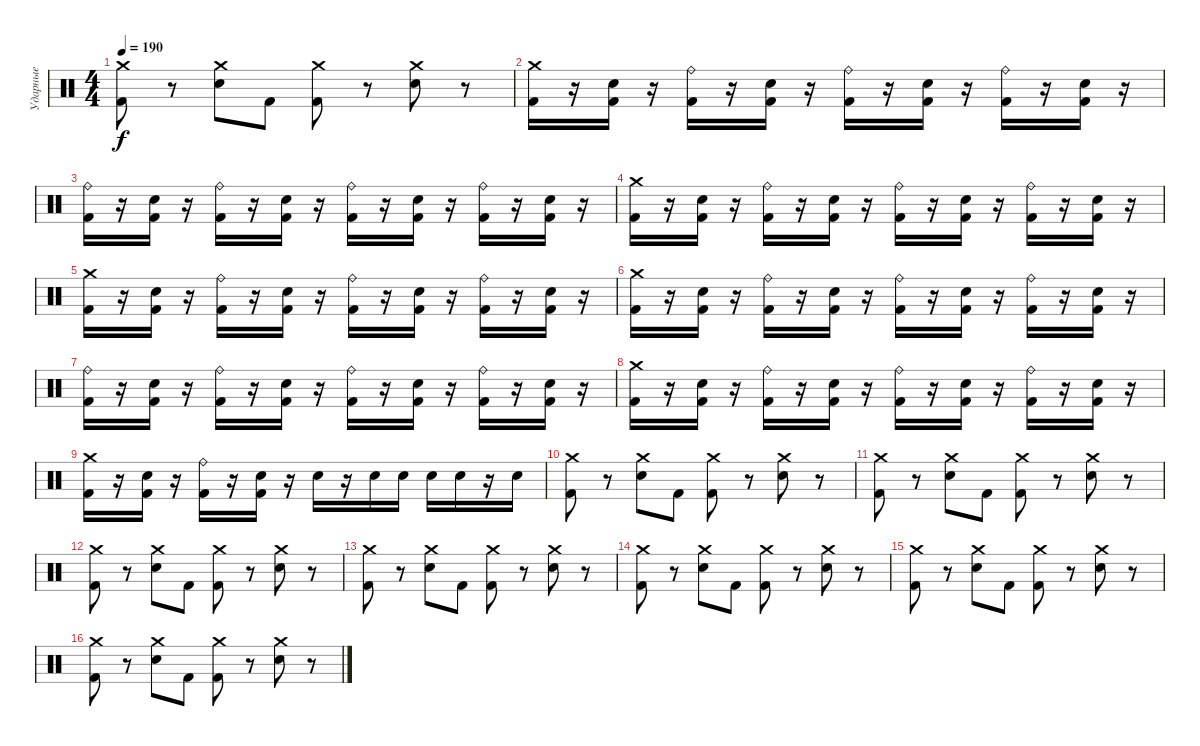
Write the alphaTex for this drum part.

\track ("Ударные" "Ударные") {instrument percussion}
\staff {score}
\articulation defaults
\ts (4 4)
\tempo 190
\clef neutral
\ks c
("Crash medium (hit)" "Kick (hit) 2").8{dy f} r.8 ("Crash medium (hit)" "Snare (hit) 2").8 "Kick (hit) 2".8 ("Crash medium (hit)" "Kick (hit) 2").8 r.8 ("Crash medium (hit)" "Snare (hit) 2").8 r.8 |
("Crash medium (hit)" "Kick (hit) 2").16 r.16 ("Snare (hit) 2" "Kick (hit) 2").16 r.16 ("Ride (bell)" "Kick (hit) 2").16 r.16 ("Snare (hit) 2" "Kick (hit) 2").16 r.16 ("Ride (bell)" "Kick (hit) 2").16 r.16 ("Snare (hit) 2" "Kick (hit) 2").16 r.16 ("Ride (bell)" "Kick (hit) 2").16 r.16 ("Snare (hit) 2" "Kick (hit) 2").16 r.16 |
("Ride (bell)" "Kick (hit) 2").16 r.16 ("Snare (hit) 2" "Kick (hit) 2").16 r.16 ("Ride (bell)" "Kick (hit) 2").16 r.16 ("Snare (hit) 2" "Kick (hit) 2").16 r.16 ("Ride (bell)" "Kick (hit) 2").16 r.16 ("Snare (hit) 2" "Kick (hit) 2").16 r.16 ("Ride (bell)" "Kick (hit) 2").16 r.16 ("Snare (hit) 2" "Kick (hit) 2").16 r.16 |
("Crash medium (hit)" "Kick (hit) 2").16 r.16 ("Snare (hit) 2" "Kick (hit) 2").16 r.16 ("Ride (bell)" "Kick (hit) 2").16 r.16 ("Snare (hit) 2" "Kick (hit) 2").16 r.16 ("Ride (bell)" "Kick (hit) 2").16 r.16 ("Snare (hit) 2" "Kick (hit) 2").16 r.16 ("Ride (bell)" "Kick (hit) 2").16 r.16 ("Snare (hit) 2" "Kick (hit) 2").16 r.16 |
("Crash medium (hit)" "Kick (hit) 2").16 r.16 ("Snare (hit) 2" "Kick (hit) 2").16 r.16 ("Ride (bell)" "Kick (hit) 2").16 r.16 ("Snare (hit) 2" "Kick (hit) 2").16 r.16 ("Ride (bell)" "Kick (hit) 2").16 r.16 ("Snare (hit) 2" "Kick (hit) 2").16 r.16 ("Ride (bell)" "Kick (hit) 2").16 r.16 ("Snare (hit) 2" "Kick (hit) 2").16 r.16 |
("Crash medium (hit)" "Kick (hit) 2").16 r.16 ("Snare (hit) 2" "Kick (hit) 2").16 r.16 ("Ride (bell)" "Kick (hit) 2").16 r.16 ("Snare (hit) 2" "Kick (hit) 2").16 r.16 ("Ride (bell)" "Kick (hit) 2").16 r.16 ("Snare (hit) 2" "Kick (hit) 2").16 r.16 ("Ride (bell)" "Kick (hit) 2").16 r.16 ("Snare (hit) 2" "Kick (hit) 2").16 r.16 |
("Ride (bell)" "Kick (hit) 2").16 r.16 ("Snare (hit) 2" "Kick (hit) 2").16 r.16 ("Ride (bell)" "Kick (hit) 2").16 r.16 ("Snare (hit) 2" "Kick (hit) 2").16 r.16 ("Ride (bell)" "Kick (hit) 2").16 r.16 ("Snare (hit) 2" "Kick (hit) 2").16 r.16 ("Ride (bell)" "Kick (hit) 2").16 r.16 ("Snare (hit) 2" "Kick (hit) 2").16 r.16 |
("Crash medium (hit)" "Kick (hit) 2").16 r.16 ("Snare (hit) 2" "Kick (hit) 2").16 r.16 ("Ride (bell)" "Kick (hit) 2").16 r.16 ("Snare (hit) 2" "Kick (hit) 2").16 r.16 ("Ride (bell)" "Kick (hit) 2").16 r.16 ("Snare (hit) 2" "Kick (hit) 2").16 r.16 ("Ride (bell)" "Kick (hit) 2").16 r.16 ("Snare (hit) 2" "Kick (hit) 2").16 r.16 |
("Crash medium (hit)" "Kick (hit) 2").16 r.16 ("Snare (hit) 2" "Kick (hit) 2").16 r.16 ("Ride (bell)" "Kick (hit) 2").16 r.16 ("Snare (hit) 2" "Kick (hit) 2").16 r.16 "Snare (hit) 2".16 r.16 "Snare (hit) 2".16 "Snare (hit) 2".16 "Snare (hit) 2".16 "Snare (hit) 2".16 r.16 "Snare (hit) 2".16 |
("Crash medium (hit)" "Kick (hit) 2").8 r.8 ("Crash medium (hit)" "Snare (hit) 2").8 "Kick (hit) 2".8 ("Crash medium (hit)" "Kick (hit) 2").8 r.8 ("Crash medium (hit)" "Snare (hit) 2").8 r.8 |
("Crash medium (hit)" "Kick (hit) 2").8 r.8 ("Crash medium (hit)" "Snare (hit) 2").8 "Kick (hit) 2".8 ("Crash medium (hit)" "Kick (hit) 2").8 r.8 ("Crash medium (hit)" "Snare (hit) 2").8 r.8 |
("Crash medium (hit)" "Kick (hit) 2").8 r.8 ("Crash medium (hit)" "Snare (hit) 2").8 "Kick (hit) 2".8 ("Crash medium (hit)" "Kick (hit) 2").8 r.8 ("Crash medium (hit)" "Snare (hit) 2").8 r.8 |
("Crash medium (hit)" "Kick (hit) 2").8 r.8 ("Crash medium (hit)" "Snare (hit) 2").8 "Kick (hit) 2".8 ("Crash medium (hit)" "Kick (hit) 2").8 r.8 ("Crash medium (hit)" "Snare (hit) 2").8 r.8 |
("Crash medium (hit)" "Kick (hit) 2").8 r.8 ("Crash medium (hit)" "Snare (hit) 2").8 "Kick (hit) 2".8 ("Crash medium (hit)" "Kick (hit) 2").8 r.8 ("Crash medium (hit)" "Snare (hit) 2").8 r.8 |
("Crash medium (hit)" "Kick (hit) 2").8 r.8 ("Crash medium (hit)" "Snare (hit) 2").8 "Kick (hit) 2".8 ("Crash medium (hit)" "Kick (hit) 2").8 r.8 ("Crash medium (hit)" "Snare (hit) 2").8 r.8 |
("Crash medium (hit)" "Kick (hit) 2").8 r.8 ("Crash medium (hit)" "Snare (hit) 2").8 "Kick (hit) 2".8 ("Crash medium (hit)" "Kick (hit) 2").8 r.8 ("Crash medium (hit)" "Snare (hit) 2").8 r.8
